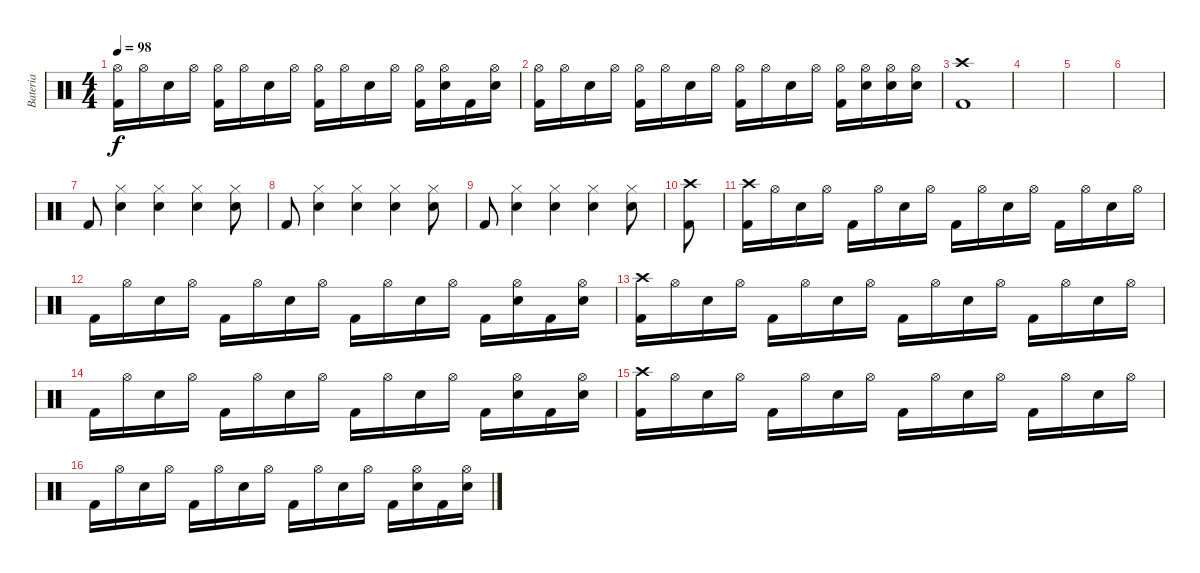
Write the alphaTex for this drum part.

\track ("Bateria" "Bateria") {instrument percussion}
\staff {score}
\articulation defaults
\ts (4 4)
\tempo 98
\clef neutral
\ks c
("Hi-Hat (open)" "Kick (hit) 2").16{dy f} "Hi-Hat (open)".16 "Snare (hit) 2".16 "Hi-Hat (open)".16 ("Hi-Hat (open)" "Kick (hit) 2").16 "Hi-Hat (open)".16 "Snare (hit) 2".16 "Hi-Hat (open)".16 ("Hi-Hat (open)" "Kick (hit) 2").16 "Hi-Hat (open)".16 "Snare (hit) 2".16 "Hi-Hat (open)".16 ("Hi-Hat (open)" "Kick (hit) 2").16 ("Hi-Hat (open)" "Snare (hit) 2").16 "Kick (hit) 2".16 ("Hi-Hat (open)" "Snare (hit) 2").16 |
("Hi-Hat (open)" "Kick (hit) 2").16 "Hi-Hat (open)".16 "Snare (hit) 2".16 "Hi-Hat (open)".16 ("Hi-Hat (open)" "Kick (hit) 2").16 "Hi-Hat (open)".16 "Snare (hit) 2".16 "Hi-Hat (open)".16 ("Hi-Hat (open)" "Kick (hit) 2").16 "Hi-Hat (open)".16 "Snare (hit) 2".16 "Hi-Hat (open)".16 ("Hi-Hat (open)" "Kick (hit) 2").16 ("Hi-Hat (open)" "Snare (hit) 2").16 ("Hi-Hat (open)" "Snare (hit) 2").16 ("Hi-Hat (open)" "Snare (hit) 2").16 |
("Crash high (hit)" "Kick (hit) 2").1 |
|
|
|
"Kick (hit) 2".8 ("Hi-Hat (closed)" "Snare (hit) 2").4 ("Hi-Hat (closed)" "Snare (hit) 2").4 ("Hi-Hat (closed)" "Snare (hit) 2").4 ("Hi-Hat (closed)" "Snare (hit) 2").8 |
"Kick (hit) 2".8 ("Hi-Hat (closed)" "Snare (hit) 2").4 ("Hi-Hat (closed)" "Snare (hit) 2").4 ("Hi-Hat (closed)" "Snare (hit) 2").4 ("Hi-Hat (closed)" "Snare (hit) 2").8 |
"Kick (hit) 2".8 ("Hi-Hat (closed)" "Snare (hit) 2").4 ("Hi-Hat (closed)" "Snare (hit) 2").4 ("Hi-Hat (closed)" "Snare (hit) 2").4 ("Hi-Hat (closed)" "Snare (hit) 2").8 |
("Kick (hit) 2" "Crash high (hit)").8 |
("Crash high (hit)" "Kick (hit) 2").16 "Hi-Hat (open)".16 "Snare (hit) 2".16 "Hi-Hat (open)".16 "Kick (hit) 2".16 "Hi-Hat (open)".16 "Snare (hit) 2".16 "Hi-Hat (open)".16 "Kick (hit) 2".16 "Hi-Hat (open)".16 "Snare (hit) 2".16 "Hi-Hat (open)".16 "Kick (hit) 2".16 "Hi-Hat (open)".16 "Snare (hit) 2".16 "Hi-Hat (open)".16 |
"Kick (hit) 2".16 "Hi-Hat (open)".16 "Snare (hit) 2".16 "Hi-Hat (open)".16 "Kick (hit) 2".16 "Hi-Hat (open)".16 "Snare (hit) 2".16 "Hi-Hat (open)".16 "Kick (hit) 2".16 "Hi-Hat (open)".16 "Snare (hit) 2".16 "Hi-Hat (open)".16 "Kick (hit) 2".16 ("Hi-Hat (open)" "Snare (hit) 2").16 "Kick (hit) 2".16 ("Hi-Hat (open)" "Snare (hit) 2").16 |
("Crash high (hit)" "Kick (hit) 2").16 "Hi-Hat (open)".16 "Snare (hit) 2".16 "Hi-Hat (open)".16 "Kick (hit) 2".16 "Hi-Hat (open)".16 "Snare (hit) 2".16 "Hi-Hat (open)".16 "Kick (hit) 2".16 "Hi-Hat (open)".16 "Snare (hit) 2".16 "Hi-Hat (open)".16 "Kick (hit) 2".16 "Hi-Hat (open)".16 "Snare (hit) 2".16 "Hi-Hat (open)".16 |
"Kick (hit) 2".16 "Hi-Hat (open)".16 "Snare (hit) 2".16 "Hi-Hat (open)".16 "Kick (hit) 2".16 "Hi-Hat (open)".16 "Snare (hit) 2".16 "Hi-Hat (open)".16 "Kick (hit) 2".16 "Hi-Hat (open)".16 "Snare (hit) 2".16 "Hi-Hat (open)".16 "Kick (hit) 2".16 ("Hi-Hat (open)" "Snare (hit) 2").16 "Kick (hit) 2".16 ("Hi-Hat (open)" "Snare (hit) 2").16 |
("Crash high (hit)" "Kick (hit) 2").16 "Hi-Hat (open)".16 "Snare (hit) 2".16 "Hi-Hat (open)".16 "Kick (hit) 2".16 "Hi-Hat (open)".16 "Snare (hit) 2".16 "Hi-Hat (open)".16 "Kick (hit) 2".16 "Hi-Hat (open)".16 "Snare (hit) 2".16 "Hi-Hat (open)".16 "Kick (hit) 2".16 "Hi-Hat (open)".16 "Snare (hit) 2".16 "Hi-Hat (open)".16 |
"Kick (hit) 2".16 "Hi-Hat (open)".16 "Snare (hit) 2".16 "Hi-Hat (open)".16 "Kick (hit) 2".16 "Hi-Hat (open)".16 "Snare (hit) 2".16 "Hi-Hat (open)".16 "Kick (hit) 2".16 "Hi-Hat (open)".16 "Snare (hit) 2".16 "Hi-Hat (open)".16 "Kick (hit) 2".16 ("Hi-Hat (open)" "Snare (hit) 2").16 "Kick (hit) 2".16 ("Hi-Hat (open)" "Snare (hit) 2").16
